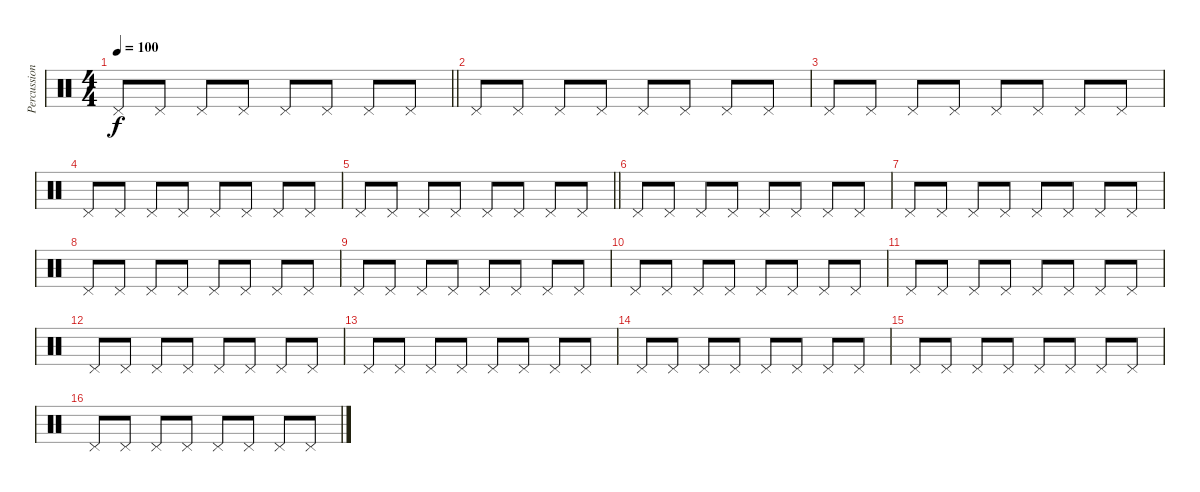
\track ("Percussions" "Percussion") {instrument percussion}
\staff {score}
\articulation defaults
\ts (4 4)
\tempo 100
\clef neutral
\barLineRight lightlight
\ks c "Pedal Hi-Hat (hit)".8{dy f} "Pedal Hi-Hat (hit)".8 "Pedal Hi-Hat (hit)".8 "Pedal Hi-Hat (hit)".8 "Pedal Hi-Hat (hit)".8 "Pedal Hi-Hat (hit)".8 "Pedal Hi-Hat (hit)".8 "Pedal Hi-Hat (hit)".8
|
"Pedal Hi-Hat (hit)".8 "Pedal Hi-Hat (hit)".8 "Pedal Hi-Hat (hit)".8 "Pedal Hi-Hat (hit)".8 "Pedal Hi-Hat (hit)".8 "Pedal Hi-Hat (hit)".8 "Pedal Hi-Hat (hit)".8 "Pedal Hi-Hat (hit)".8 |
"Pedal Hi-Hat (hit)".8 "Pedal Hi-Hat (hit)".8 "Pedal Hi-Hat (hit)".8 "Pedal Hi-Hat (hit)".8 "Pedal Hi-Hat (hit)".8 "Pedal Hi-Hat (hit)".8 "Pedal Hi-Hat (hit)".8 "Pedal Hi-Hat (hit)".8 |
"Pedal Hi-Hat (hit)".8 "Pedal Hi-Hat (hit)".8 "Pedal Hi-Hat (hit)".8 "Pedal Hi-Hat (hit)".8 "Pedal Hi-Hat (hit)".8 "Pedal Hi-Hat (hit)".8 "Pedal Hi-Hat (hit)".8 "Pedal Hi-Hat (hit)".8 |
\barLineRight lightlight "Pedal Hi-Hat (hit)".8 "Pedal Hi-Hat (hit)".8 "Pedal Hi-Hat (hit)".8 "Pedal Hi-Hat (hit)".8 "Pedal Hi-Hat (hit)".8 "Pedal Hi-Hat (hit)".8 "Pedal Hi-Hat (hit)".8 "Pedal Hi-Hat (hit)".8
|
"Pedal Hi-Hat (hit)".8 "Pedal Hi-Hat (hit)".8 "Pedal Hi-Hat (hit)".8 "Pedal Hi-Hat (hit)".8 "Pedal Hi-Hat (hit)".8 "Pedal Hi-Hat (hit)".8 "Pedal Hi-Hat (hit)".8 "Pedal Hi-Hat (hit)".8 |
"Pedal Hi-Hat (hit)".8 "Pedal Hi-Hat (hit)".8 "Pedal Hi-Hat (hit)".8 "Pedal Hi-Hat (hit)".8 "Pedal Hi-Hat (hit)".8 "Pedal Hi-Hat (hit)".8 "Pedal Hi-Hat (hit)".8 "Pedal Hi-Hat (hit)".8 |
"Pedal Hi-Hat (hit)".8 "Pedal Hi-Hat (hit)".8 "Pedal Hi-Hat (hit)".8 "Pedal Hi-Hat (hit)".8 "Pedal Hi-Hat (hit)".8 "Pedal Hi-Hat (hit)".8 "Pedal Hi-Hat (hit)".8 "Pedal Hi-Hat (hit)".8 |
"Pedal Hi-Hat (hit)".8 "Pedal Hi-Hat (hit)".8 "Pedal Hi-Hat (hit)".8 "Pedal Hi-Hat (hit)".8 "Pedal Hi-Hat (hit)".8 "Pedal Hi-Hat (hit)".8 "Pedal Hi-Hat (hit)".8 "Pedal Hi-Hat (hit)".8 |
"Pedal Hi-Hat (hit)".8 "Pedal Hi-Hat (hit)".8 "Pedal Hi-Hat (hit)".8 "Pedal Hi-Hat (hit)".8 "Pedal Hi-Hat (hit)".8 "Pedal Hi-Hat (hit)".8 "Pedal Hi-Hat (hit)".8 "Pedal Hi-Hat (hit)".8 |
"Pedal Hi-Hat (hit)".8 "Pedal Hi-Hat (hit)".8 "Pedal Hi-Hat (hit)".8 "Pedal Hi-Hat (hit)".8 "Pedal Hi-Hat (hit)".8 "Pedal Hi-Hat (hit)".8 "Pedal Hi-Hat (hit)".8 "Pedal Hi-Hat (hit)".8 |
"Pedal Hi-Hat (hit)".8 "Pedal Hi-Hat (hit)".8 "Pedal Hi-Hat (hit)".8 "Pedal Hi-Hat (hit)".8 "Pedal Hi-Hat (hit)".8 "Pedal Hi-Hat (hit)".8 "Pedal Hi-Hat (hit)".8 "Pedal Hi-Hat (hit)".8 |
"Pedal Hi-Hat (hit)".8 "Pedal Hi-Hat (hit)".8 "Pedal Hi-Hat (hit)".8 "Pedal Hi-Hat (hit)".8 "Pedal Hi-Hat (hit)".8 "Pedal Hi-Hat (hit)".8 "Pedal Hi-Hat (hit)".8 "Pedal Hi-Hat (hit)".8 |
"Pedal Hi-Hat (hit)".8 "Pedal Hi-Hat (hit)".8 "Pedal Hi-Hat (hit)".8 "Pedal Hi-Hat (hit)".8 "Pedal Hi-Hat (hit)".8 "Pedal Hi-Hat (hit)".8 "Pedal Hi-Hat (hit)".8 "Pedal Hi-Hat (hit)".8 |
"Pedal Hi-Hat (hit)".8 "Pedal Hi-Hat (hit)".8 "Pedal Hi-Hat (hit)".8 "Pedal Hi-Hat (hit)".8 "Pedal Hi-Hat (hit)".8 "Pedal Hi-Hat (hit)".8 "Pedal Hi-Hat (hit)".8 "Pedal Hi-Hat (hit)".8 |
"Pedal Hi-Hat (hit)".8 "Pedal Hi-Hat (hit)".8 "Pedal Hi-Hat (hit)".8 "Pedal Hi-Hat (hit)".8 "Pedal Hi-Hat (hit)".8 "Pedal Hi-Hat (hit)".8 "Pedal Hi-Hat (hit)".8 "Pedal Hi-Hat (hit)".8
